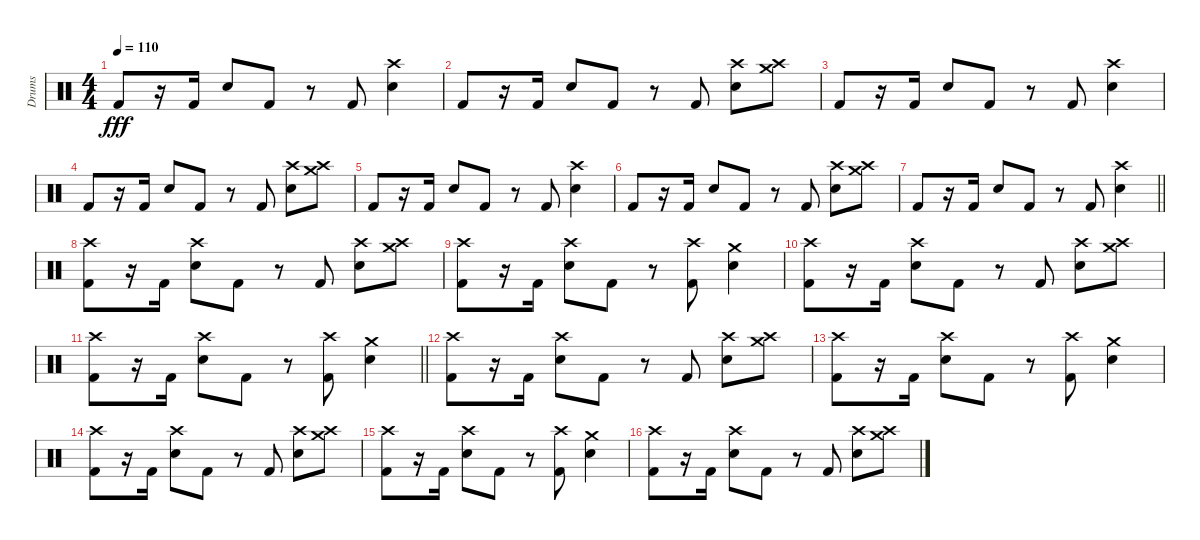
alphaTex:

\track ("Drums" "Drums") {instrument percussion}
\staff {score}
\articulation defaults
\ts (4 4)
\tempo 110
\clef neutral
\ks c "Kick (hit) 2".8{dy fff}
r.16 "Kick (hit) 2".16 "Electric Snare (hit)".8 "Kick (hit) 2".8 r.8 "Kick (hit) 2".8 ("Crash high (hit)" "Electric Snare (hit)").4 |
"Kick (hit) 2".8 r.16 "Kick (hit) 2".16 "Electric Snare (hit)".8 "Kick (hit) 2".8 r.8 "Kick (hit) 2".8 ("Crash high (hit)" "Electric Snare (hit)").8 ("Crash high (hit)" "Crash medium (hit)").8 |
"Kick (hit) 2".8 r.16 "Kick (hit) 2".16 "Electric Snare (hit)".8 "Kick (hit) 2".8 r.8 "Kick (hit) 2".8 ("Crash high (hit)" "Electric Snare (hit)").4 |
"Kick (hit) 2".8 r.16 "Kick (hit) 2".16 "Electric Snare (hit)".8 "Kick (hit) 2".8 r.8 "Kick (hit) 2".8 ("Crash high (hit)" "Electric Snare (hit)").8 ("Crash high (hit)" "Crash medium (hit)").8 |
"Kick (hit) 2".8 r.16 "Kick (hit) 2".16 "Electric Snare (hit)".8 "Kick (hit) 2".8 r.8 "Kick (hit) 2".8 ("Crash high (hit)" "Electric Snare (hit)").4 |
"Kick (hit) 2".8 r.16 "Kick (hit) 2".16 "Electric Snare (hit)".8 "Kick (hit) 2".8 r.8 "Kick (hit) 2".8 ("Crash high (hit)" "Electric Snare (hit)").8 ("Crash high (hit)" "Crash medium (hit)").8 |
\barLineRight lightlight "Kick (hit) 2".8
r.16 "Kick (hit) 2".16 "Electric Snare (hit)".8 "Kick (hit) 2".8 r.8 "Kick (hit) 2".8 ("Crash high (hit)" "Electric Snare (hit)").4 |
("Crash high (hit)" "Kick (hit) 2").8 r.16 "Kick (hit) 2".16 ("Crash high (hit)" "Electric Snare (hit)").8 "Kick (hit) 2".8 r.8 "Kick (hit) 2".8 ("Crash high (hit)" "Electric Snare (hit)").8 ("Crash high (hit)" "Crash medium (hit)").8 |
("Crash high (hit)" "Kick (hit) 2").8 r.16 "Kick (hit) 2".16 ("Crash high (hit)" "Electric Snare (hit)").8 "Kick (hit) 2".8 r.8 ("Crash high (hit)" "Kick (hit) 2").8 ("Crash medium (hit)" "Electric Snare (hit)").4 |
("Crash high (hit)" "Kick (hit) 2").8 r.16 "Kick (hit) 2".16 ("Crash high (hit)" "Electric Snare (hit)").8 "Kick (hit) 2".8 r.8 "Kick (hit) 2".8 ("Crash high (hit)" "Electric Snare (hit)").8 ("Crash high (hit)" "Crash medium (hit)").8 |
\barLineRight lightlight
("Crash high (hit)" "Kick (hit) 2").8 r.16 "Kick (hit) 2".16 ("Crash high (hit)" "Electric Snare (hit)").8 "Kick (hit) 2".8 r.8 ("Crash high (hit)" "Kick (hit) 2").8 ("Crash medium (hit)" "Electric Snare (hit)").4 |
("Crash high (hit)" "Kick (hit) 2").8 r.16 "Kick (hit) 2".16 ("Crash high (hit)" "Electric Snare (hit)").8 "Kick (hit) 2".8 r.8 "Kick (hit) 2".8 ("Crash high (hit)" "Electric Snare (hit)").8 ("Crash high (hit)" "Crash medium (hit)").8 |
("Crash high (hit)" "Kick (hit) 2").8 r.16 "Kick (hit) 2".16 ("Crash high (hit)" "Electric Snare (hit)").8 "Kick (hit) 2".8 r.8 ("Crash high (hit)" "Kick (hit) 2").8 ("Crash medium (hit)" "Electric Snare (hit)").4 |
("Crash high (hit)" "Kick (hit) 2").8 r.16 "Kick (hit) 2".16 ("Crash high (hit)" "Electric Snare (hit)").8 "Kick (hit) 2".8 r.8 "Kick (hit) 2".8 ("Crash high (hit)" "Electric Snare (hit)").8 ("Crash high (hit)" "Crash medium (hit)").8 |
("Crash high (hit)" "Kick (hit) 2").8 r.16 "Kick (hit) 2".16 ("Crash high (hit)" "Electric Snare (hit)").8 "Kick (hit) 2".8 r.8 ("Crash high (hit)" "Kick (hit) 2").8 ("Crash medium (hit)" "Electric Snare (hit)").4 |
("Crash high (hit)" "Kick (hit) 2").8 r.16 "Kick (hit) 2".16 ("Crash high (hit)" "Electric Snare (hit)").8 "Kick (hit) 2".8 r.8 "Kick (hit) 2".8 ("Crash high (hit)" "Electric Snare (hit)").8 ("Crash high (hit)" "Crash medium (hit)").8
